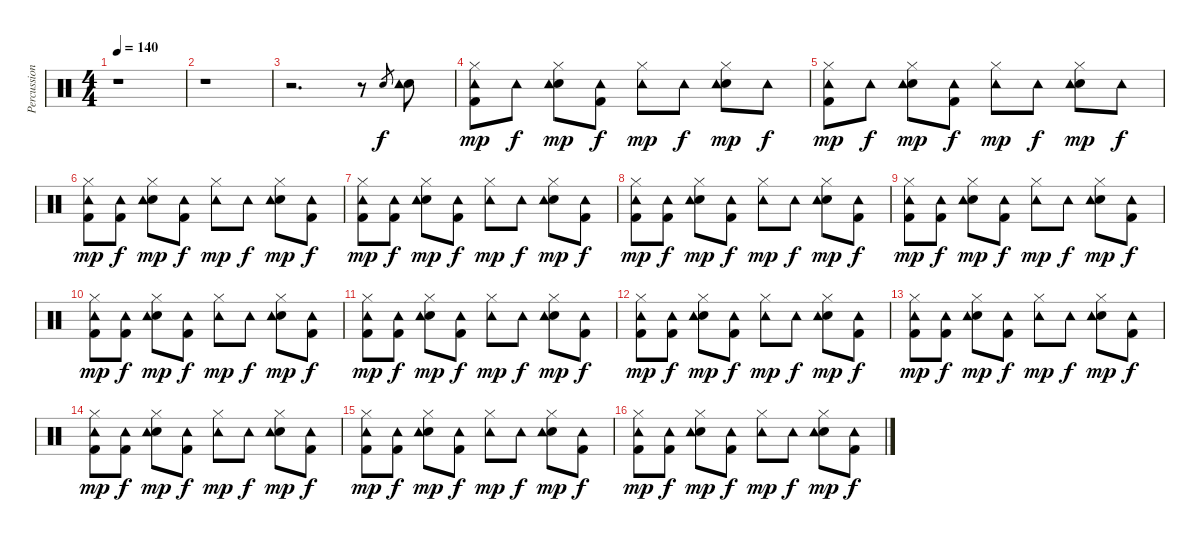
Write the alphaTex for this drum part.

\track ("Percussion" "Percussion") {instrument percussion}
\staff {score}
\articulation defaults
\ts (4 4)
\tempo 140
\clef neutral
\ks c
r.1{dy f} |
r.1 |
r.2{d} r.8 "Snare (hit) 2".8{gr} ("Snare (hit) 2" "Tambourine (hit)").8 |
("Kick (hit) 2" "Hi-Hat (closed)" "Tambourine (hit)").8{dy mp} "Tambourine (hit)".8{dy f} ("Snare (hit) 2" "Hi-Hat (closed)" "Tambourine (hit)").8{dy mp} ("Kick (hit) 2" "Tambourine (hit)").8{dy f} ("Hi-Hat (closed)" "Tambourine (hit)").8{dy mp} "Tambourine (hit)".8{dy f} ("Snare (hit) 2" "Hi-Hat (closed)" "Tambourine (hit)").8{dy mp} "Tambourine (hit)".8{dy f} |
("Kick (hit) 2" "Hi-Hat (closed)" "Tambourine (hit)").8{dy mp} "Tambourine (hit)".8{dy f} ("Snare (hit) 2" "Hi-Hat (closed)" "Tambourine (hit)").8{dy mp} ("Kick (hit) 2" "Tambourine (hit)").8{dy f} ("Hi-Hat (closed)" "Tambourine (hit)").8{dy mp} "Tambourine (hit)".8{dy f} ("Snare (hit) 2" "Hi-Hat (closed)" "Tambourine (hit)").8{dy mp} "Tambourine (hit)".8{dy f} |
("Kick (hit) 2" "Hi-Hat (closed)" "Tambourine (hit)").8{dy mp} ("Kick (hit) 2" "Tambourine (hit)").8{dy f} ("Snare (hit) 2" "Hi-Hat (closed)" "Tambourine (hit)").8{dy mp} ("Kick (hit) 2" "Tambourine (hit)").8{dy f} ("Hi-Hat (closed)" "Tambourine (hit)").8{dy mp} "Tambourine (hit)".8{dy f} ("Snare (hit) 2" "Hi-Hat (closed)" "Tambourine (hit)").8{dy mp} ("Kick (hit) 2" "Tambourine (hit)").8{dy f} |
("Kick (hit) 2" "Hi-Hat (closed)" "Tambourine (hit)").8{dy mp} ("Kick (hit) 2" "Tambourine (hit)").8{dy f} ("Snare (hit) 2" "Hi-Hat (closed)" "Tambourine (hit)").8{dy mp} ("Kick (hit) 2" "Tambourine (hit)").8{dy f} ("Hi-Hat (closed)" "Tambourine (hit)").8{dy mp} "Tambourine (hit)".8{dy f} ("Snare (hit) 2" "Hi-Hat (closed)" "Tambourine (hit)").8{dy mp} ("Kick (hit) 2" "Tambourine (hit)").8{dy f} |
("Kick (hit) 2" "Hi-Hat (closed)" "Tambourine (hit)").8{dy mp} ("Kick (hit) 2" "Tambourine (hit)").8{dy f} ("Snare (hit) 2" "Hi-Hat (closed)" "Tambourine (hit)").8{dy mp} ("Kick (hit) 2" "Tambourine (hit)").8{dy f} ("Hi-Hat (closed)" "Tambourine (hit)").8{dy mp} "Tambourine (hit)".8{dy f} ("Snare (hit) 2" "Hi-Hat (closed)" "Tambourine (hit)").8{dy mp} ("Kick (hit) 2" "Tambourine (hit)").8{dy f} |
("Kick (hit) 2" "Hi-Hat (closed)" "Tambourine (hit)").8{dy mp} ("Kick (hit) 2" "Tambourine (hit)").8{dy f} ("Snare (hit) 2" "Hi-Hat (closed)" "Tambourine (hit)").8{dy mp} ("Kick (hit) 2" "Tambourine (hit)").8{dy f} ("Hi-Hat (closed)" "Tambourine (hit)").8{dy mp} "Tambourine (hit)".8{dy f} ("Snare (hit) 2" "Hi-Hat (closed)" "Tambourine (hit)").8{dy mp} ("Kick (hit) 2" "Tambourine (hit)").8{dy f} |
("Kick (hit) 2" "Hi-Hat (closed)" "Tambourine (hit)").8{dy mp} ("Kick (hit) 2" "Tambourine (hit)").8{dy f} ("Snare (hit) 2" "Hi-Hat (closed)" "Tambourine (hit)").8{dy mp} ("Kick (hit) 2" "Tambourine (hit)").8{dy f} ("Hi-Hat (closed)" "Tambourine (hit)").8{dy mp} "Tambourine (hit)".8{dy f} ("Snare (hit) 2" "Hi-Hat (closed)" "Tambourine (hit)").8{dy mp} ("Kick (hit) 2" "Tambourine (hit)").8{dy f} |
("Kick (hit) 2" "Hi-Hat (closed)" "Tambourine (hit)").8{dy mp} ("Kick (hit) 2" "Tambourine (hit)").8{dy f} ("Snare (hit) 2" "Hi-Hat (closed)" "Tambourine (hit)").8{dy mp} ("Kick (hit) 2" "Tambourine (hit)").8{dy f} ("Hi-Hat (closed)" "Tambourine (hit)").8{dy mp} "Tambourine (hit)".8{dy f} ("Snare (hit) 2" "Hi-Hat (closed)" "Tambourine (hit)").8{dy mp} ("Kick (hit) 2" "Tambourine (hit)").8{dy f} |
("Kick (hit) 2" "Hi-Hat (closed)" "Tambourine (hit)").8{dy mp} ("Kick (hit) 2" "Tambourine (hit)").8{dy f} ("Snare (hit) 2" "Hi-Hat (closed)" "Tambourine (hit)").8{dy mp} ("Kick (hit) 2" "Tambourine (hit)").8{dy f} ("Hi-Hat (closed)" "Tambourine (hit)").8{dy mp} "Tambourine (hit)".8{dy f} ("Snare (hit) 2" "Hi-Hat (closed)" "Tambourine (hit)").8{dy mp} ("Kick (hit) 2" "Tambourine (hit)").8{dy f} |
("Kick (hit) 2" "Hi-Hat (closed)" "Tambourine (hit)").8{dy mp} ("Kick (hit) 2" "Tambourine (hit)").8{dy f} ("Snare (hit) 2" "Hi-Hat (closed)" "Tambourine (hit)").8{dy mp} ("Kick (hit) 2" "Tambourine (hit)").8{dy f} ("Hi-Hat (closed)" "Tambourine (hit)").8{dy mp} "Tambourine (hit)".8{dy f} ("Snare (hit) 2" "Hi-Hat (closed)" "Tambourine (hit)").8{dy mp} ("Kick (hit) 2" "Tambourine (hit)").8{dy f} |
("Kick (hit) 2" "Hi-Hat (closed)" "Tambourine (hit)").8{dy mp} ("Kick (hit) 2" "Tambourine (hit)").8{dy f} ("Snare (hit) 2" "Hi-Hat (closed)" "Tambourine (hit)").8{dy mp} ("Kick (hit) 2" "Tambourine (hit)").8{dy f} ("Hi-Hat (closed)" "Tambourine (hit)").8{dy mp} "Tambourine (hit)".8{dy f} ("Snare (hit) 2" "Hi-Hat (closed)" "Tambourine (hit)").8{dy mp} ("Kick (hit) 2" "Tambourine (hit)").8{dy f} |
("Kick (hit) 2" "Hi-Hat (closed)" "Tambourine (hit)").8{dy mp} ("Kick (hit) 2" "Tambourine (hit)").8{dy f} ("Snare (hit) 2" "Hi-Hat (closed)" "Tambourine (hit)").8{dy mp} ("Kick (hit) 2" "Tambourine (hit)").8{dy f} ("Hi-Hat (closed)" "Tambourine (hit)").8{dy mp} "Tambourine (hit)".8{dy f} ("Snare (hit) 2" "Hi-Hat (closed)" "Tambourine (hit)").8{dy mp} ("Kick (hit) 2" "Tambourine (hit)").8{dy f} |
("Kick (hit) 2" "Hi-Hat (closed)" "Tambourine (hit)").8{dy mp} ("Kick (hit) 2" "Tambourine (hit)").8{dy f} ("Snare (hit) 2" "Hi-Hat (closed)" "Tambourine (hit)").8{dy mp} ("Kick (hit) 2" "Tambourine (hit)").8{dy f} ("Hi-Hat (closed)" "Tambourine (hit)").8{dy mp} "Tambourine (hit)".8{dy f} ("Snare (hit) 2" "Hi-Hat (closed)" "Tambourine (hit)").8{dy mp} ("Kick (hit) 2" "Tambourine (hit)").8{dy f}
